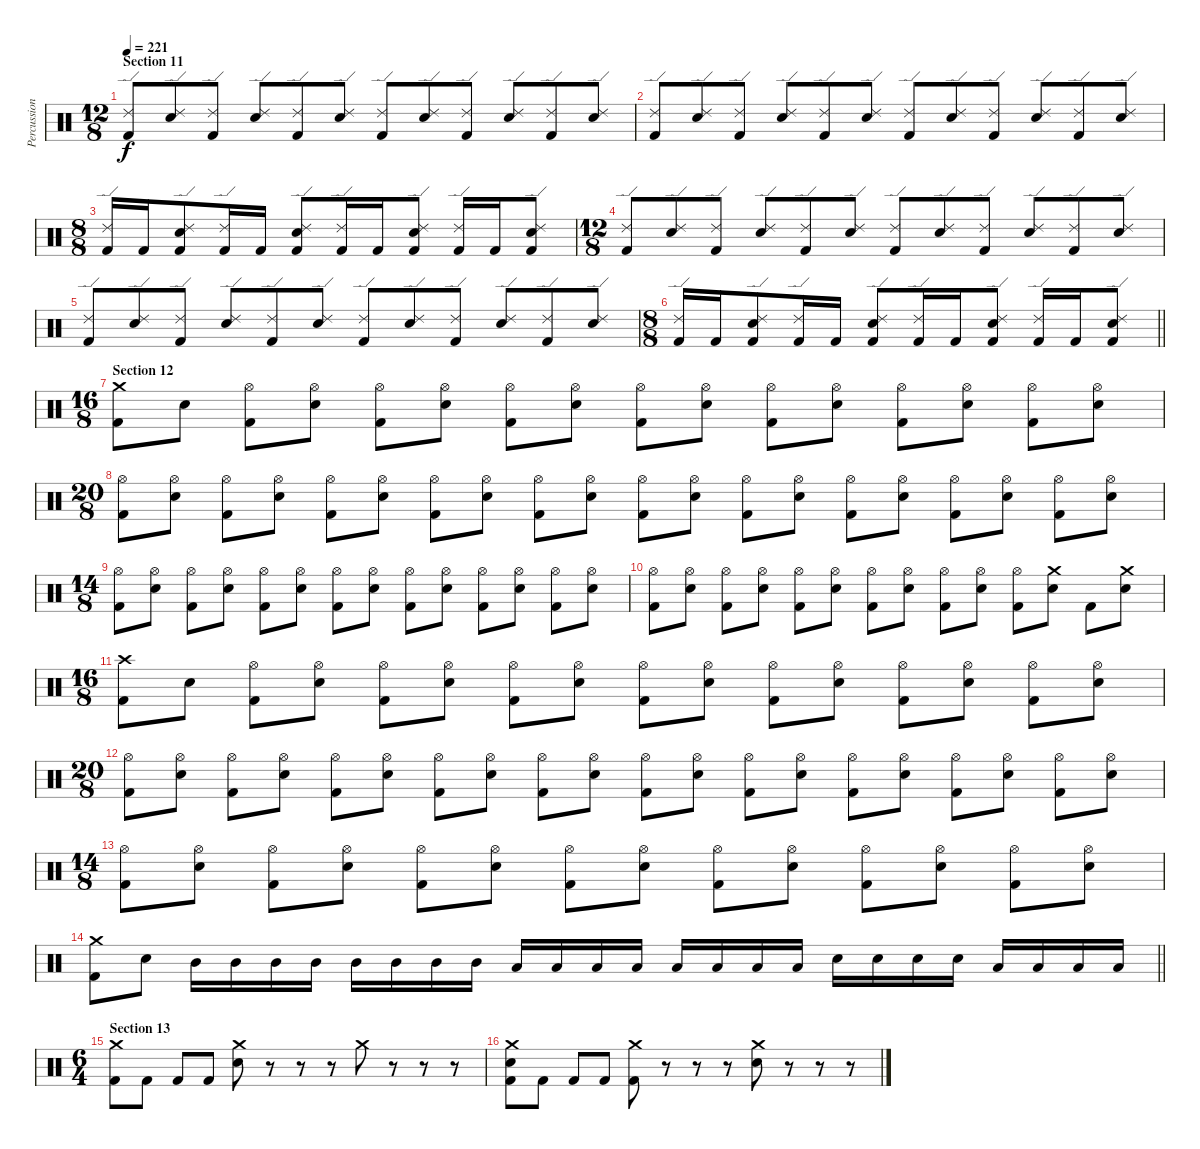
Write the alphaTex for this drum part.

\track ("Percussion" "Percussion") {instrument percussion}
\staff {score}
\articulation defaults
\ts (12 8)
\section ("" "Section 11")
\tempo 221
\clef neutral
\ks c
("Ride (edge) 2" "Kick (hit) 2").8{dy f} ("Ride (edge) 2" "Snare (hit) 2").8 ("Ride (edge) 2" "Kick (hit) 2").8 ("Ride (edge) 2" "Snare (hit) 2").8 ("Ride (edge) 2" "Kick (hit) 2").8 ("Ride (edge) 2" "Snare (hit) 2").8 ("Ride (edge) 2" "Kick (hit) 2").8 ("Ride (edge) 2" "Snare (hit) 2").8 ("Ride (edge) 2" "Kick (hit) 2").8 ("Ride (edge) 2" "Snare (hit) 2").8 ("Ride (edge) 2" "Kick (hit) 2").8 ("Ride (edge) 2" "Snare (hit) 2").8 |
("Ride (edge) 2" "Kick (hit) 2").8 ("Ride (edge) 2" "Snare (hit) 2").8 ("Ride (edge) 2" "Kick (hit) 2").8 ("Ride (edge) 2" "Snare (hit) 2").8 ("Ride (edge) 2" "Kick (hit) 2").8 ("Ride (edge) 2" "Snare (hit) 2").8 ("Ride (edge) 2" "Kick (hit) 2").8 ("Ride (edge) 2" "Snare (hit) 2").8 ("Ride (edge) 2" "Kick (hit) 2").8 ("Ride (edge) 2" "Snare (hit) 2").8 ("Ride (edge) 2" "Kick (hit) 2").8 ("Ride (edge) 2" "Snare (hit) 2").8 |
\ts (8 8)
("Ride (edge) 2" "Kick (hit) 2").16 "Kick (hit) 2".16 ("Ride (edge) 2" "Snare (hit) 2" "Kick (hit) 2").8 ("Ride (edge) 2" "Kick (hit) 2").16 "Kick (hit) 2".16 ("Ride (edge) 2" "Snare (hit) 2" "Kick (hit) 2").8 ("Ride (edge) 2" "Kick (hit) 2").16 "Kick (hit) 2".16 ("Ride (edge) 2" "Snare (hit) 2" "Kick (hit) 2").8 ("Ride (edge) 2" "Kick (hit) 2").16 "Kick (hit) 2".16 ("Ride (edge) 2" "Snare (hit) 2" "Kick (hit) 2").8 |
\ts (12 8)
("Ride (edge) 2" "Kick (hit) 2").8 ("Ride (edge) 2" "Snare (hit) 2").8 ("Ride (edge) 2" "Kick (hit) 2").8 ("Ride (edge) 2" "Snare (hit) 2").8 ("Ride (edge) 2" "Kick (hit) 2").8 ("Ride (edge) 2" "Snare (hit) 2").8 ("Ride (edge) 2" "Kick (hit) 2").8 ("Ride (edge) 2" "Snare (hit) 2").8 ("Ride (edge) 2" "Kick (hit) 2").8 ("Ride (edge) 2" "Snare (hit) 2").8 ("Ride (edge) 2" "Kick (hit) 2").8 ("Ride (edge) 2" "Snare (hit) 2").8 |
("Ride (edge) 2" "Kick (hit) 2").8 ("Ride (edge) 2" "Snare (hit) 2").8 ("Ride (edge) 2" "Kick (hit) 2").8 ("Ride (edge) 2" "Snare (hit) 2").8 ("Ride (edge) 2" "Kick (hit) 2").8 ("Ride (edge) 2" "Snare (hit) 2").8 ("Ride (edge) 2" "Kick (hit) 2").8 ("Ride (edge) 2" "Snare (hit) 2").8 ("Ride (edge) 2" "Kick (hit) 2").8 ("Ride (edge) 2" "Snare (hit) 2").8 ("Ride (edge) 2" "Kick (hit) 2").8 ("Ride (edge) 2" "Snare (hit) 2").8 |
\ts (8 8)
\barLineRight lightlight
("Ride (edge) 2" "Kick (hit) 2").16 "Kick (hit) 2".16 ("Ride (edge) 2" "Snare (hit) 2" "Kick (hit) 2").8 ("Ride (edge) 2" "Kick (hit) 2").16 "Kick (hit) 2".16 ("Ride (edge) 2" "Snare (hit) 2" "Kick (hit) 2").8 ("Ride (edge) 2" "Kick (hit) 2").16 "Kick (hit) 2".16 ("Ride (edge) 2" "Snare (hit) 2" "Kick (hit) 2").8 ("Ride (edge) 2" "Kick (hit) 2").16 "Kick (hit) 2".16 ("Ride (edge) 2" "Snare (hit) 2" "Kick (hit) 2").8 |
\ts (16 8)
\section ("" "Section 12")
("Crash medium (hit)" "Kick (hit) 2").8 "Snare (hit) 2".8 ("Hi-Hat (open)" "Kick (hit) 2").8 ("Hi-Hat (open)" "Snare (hit) 2").8 ("Hi-Hat (open)" "Kick (hit) 2").8 ("Hi-Hat (open)" "Snare (hit) 2").8 ("Hi-Hat (open)" "Kick (hit) 2").8 ("Hi-Hat (open)" "Snare (hit) 2").8 ("Hi-Hat (open)" "Kick (hit) 2").8 ("Hi-Hat (open)" "Snare (hit) 2").8 ("Hi-Hat (open)" "Kick (hit) 2").8 ("Hi-Hat (open)" "Snare (hit) 2").8 ("Hi-Hat (open)" "Kick (hit) 2").8 ("Hi-Hat (open)" "Snare (hit) 2").8 ("Hi-Hat (open)" "Kick (hit) 2").8 ("Hi-Hat (open)" "Snare (hit) 2").8 |
\ts (20 8)
("Hi-Hat (open)" "Kick (hit) 2").8 ("Hi-Hat (open)" "Snare (hit) 2").8 ("Hi-Hat (open)" "Kick (hit) 2").8 ("Hi-Hat (open)" "Snare (hit) 2").8 ("Hi-Hat (open)" "Kick (hit) 2").8 ("Hi-Hat (open)" "Snare (hit) 2").8 ("Hi-Hat (open)" "Kick (hit) 2").8 ("Hi-Hat (open)" "Snare (hit) 2").8 ("Hi-Hat (open)" "Kick (hit) 2").8 ("Hi-Hat (open)" "Snare (hit) 2").8 ("Hi-Hat (open)" "Kick (hit) 2").8 ("Hi-Hat (open)" "Snare (hit) 2").8 ("Hi-Hat (open)" "Kick (hit) 2").8 ("Hi-Hat (open)" "Snare (hit) 2").8 ("Hi-Hat (open)" "Kick (hit) 2").8 ("Hi-Hat (open)" "Snare (hit) 2").8 ("Hi-Hat (open)" "Kick (hit) 2").8 ("Hi-Hat (open)" "Snare (hit) 2").8 ("Hi-Hat (open)" "Kick (hit) 2").8 ("Hi-Hat (open)" "Snare (hit) 2").8 |
\ts (14 8)
("Hi-Hat (open)" "Kick (hit) 2").8 ("Hi-Hat (open)" "Snare (hit) 2").8 ("Hi-Hat (open)" "Kick (hit) 2").8 ("Hi-Hat (open)" "Snare (hit) 2").8 ("Hi-Hat (open)" "Kick (hit) 2").8 ("Hi-Hat (open)" "Snare (hit) 2").8 ("Hi-Hat (open)" "Kick (hit) 2").8 ("Hi-Hat (open)" "Snare (hit) 2").8 ("Hi-Hat (open)" "Kick (hit) 2").8 ("Hi-Hat (open)" "Snare (hit) 2").8 ("Hi-Hat (open)" "Kick (hit) 2").8 ("Hi-Hat (open)" "Snare (hit) 2").8 ("Hi-Hat (open)" "Kick (hit) 2").8 ("Hi-Hat (open)" "Snare (hit) 2").8 |
("Hi-Hat (open)" "Kick (hit) 2").8 ("Hi-Hat (open)" "Snare (hit) 2").8 ("Hi-Hat (open)" "Kick (hit) 2").8 ("Hi-Hat (open)" "Snare (hit) 2").8 ("Hi-Hat (open)" "Kick (hit) 2").8 ("Hi-Hat (open)" "Snare (hit) 2").8 ("Hi-Hat (open)" "Kick (hit) 2").8 ("Hi-Hat (open)" "Snare (hit) 2").8 ("Hi-Hat (open)" "Kick (hit) 2").8 ("Hi-Hat (open)" "Snare (hit) 2").8 ("Hi-Hat (open)" "Kick (hit) 2").8 ("Crash medium (hit)" "Snare (hit) 2").8 "Kick (hit) 2".8 ("Crash medium (hit)" "Snare (hit) 2").8 |
\ts (16 8)
("Crash high (hit)" "Kick (hit) 2").8 "Snare (hit) 2".8 ("Hi-Hat (open)" "Kick (hit) 2").8 ("Hi-Hat (open)" "Snare (hit) 2").8 ("Hi-Hat (open)" "Kick (hit) 2").8 ("Hi-Hat (open)" "Snare (hit) 2").8 ("Hi-Hat (open)" "Kick (hit) 2").8 ("Hi-Hat (open)" "Snare (hit) 2").8 ("Hi-Hat (open)" "Kick (hit) 2").8 ("Hi-Hat (open)" "Snare (hit) 2").8 ("Hi-Hat (open)" "Kick (hit) 2").8 ("Hi-Hat (open)" "Snare (hit) 2").8 ("Hi-Hat (open)" "Kick (hit) 2").8 ("Hi-Hat (open)" "Snare (hit) 2").8 ("Hi-Hat (open)" "Kick (hit) 2").8 ("Hi-Hat (open)" "Snare (hit) 2").8 |
\ts (20 8)
("Hi-Hat (open)" "Kick (hit) 2").8 ("Hi-Hat (open)" "Snare (hit) 2").8 ("Hi-Hat (open)" "Kick (hit) 2").8 ("Hi-Hat (open)" "Snare (hit) 2").8 ("Hi-Hat (open)" "Kick (hit) 2").8 ("Hi-Hat (open)" "Snare (hit) 2").8 ("Hi-Hat (open)" "Kick (hit) 2").8 ("Hi-Hat (open)" "Snare (hit) 2").8 ("Hi-Hat (open)" "Kick (hit) 2").8 ("Hi-Hat (open)" "Snare (hit) 2").8 ("Hi-Hat (open)" "Kick (hit) 2").8 ("Hi-Hat (open)" "Snare (hit) 2").8 ("Hi-Hat (open)" "Kick (hit) 2").8 ("Hi-Hat (open)" "Snare (hit) 2").8 ("Hi-Hat (open)" "Kick (hit) 2").8 ("Hi-Hat (open)" "Snare (hit) 2").8 ("Hi-Hat (open)" "Kick (hit) 2").8 ("Hi-Hat (open)" "Snare (hit) 2").8 ("Hi-Hat (open)" "Kick (hit) 2").8 ("Hi-Hat (open)" "Snare (hit) 2").8 |
\ts (14 8)
("Hi-Hat (open)" "Kick (hit) 2").8 ("Hi-Hat (open)" "Snare (hit) 2").8 ("Hi-Hat (open)" "Kick (hit) 2").8 ("Hi-Hat (open)" "Snare (hit) 2").8 ("Hi-Hat (open)" "Kick (hit) 2").8 ("Hi-Hat (open)" "Snare (hit) 2").8 ("Hi-Hat (open)" "Kick (hit) 2").8 ("Hi-Hat (open)" "Snare (hit) 2").8 ("Hi-Hat (open)" "Kick (hit) 2").8 ("Hi-Hat (open)" "Snare (hit) 2").8 ("Hi-Hat (open)" "Kick (hit) 2").8 ("Hi-Hat (open)" "Snare (hit) 2").8 ("Hi-Hat (open)" "Kick (hit) 2").8 ("Hi-Hat (open)" "Snare (hit) 2").8 |
\barLineRight lightlight
("Crash medium (hit)" "Kick (hit) 2").8 "Snare (hit) 2".8 "Mid Tom (hit)".16 "Mid Tom (hit)".16 "Mid Tom (hit)".16 "Mid Tom (hit)".16 "Mid Tom (hit)".16 "Mid Tom (hit)".16 "Mid Tom (hit)".16 "Mid Tom (hit)".16 "Low Tom (hit)".16 "Low Tom (hit)".16 "Low Tom (hit)".16 "Low Tom (hit)".16 "Low Tom (hit)".16 "Low Tom (hit)".16 "Low Tom (hit)".16 "Low Tom (hit)".16 "Snare (hit) 2".16 "Snare (hit) 2".16 "Snare (hit) 2".16 "Snare (hit) 2".16 "Low Floor Tom (hit)".16 "Low Floor Tom (hit)".16 "Low Floor Tom (hit)".16 "Low Floor Tom (hit)".16 |
\ts (6 4)
\section ("" "Section 13")
("Crash medium (hit)" "Kick (hit) 2").8 "Kick (hit) 2".8 "Kick (hit) 2".8 "Kick (hit) 2".8 ("Crash medium (hit)" "Snare (hit) 2").8 r.8 r.8 r.8 "Crash medium (hit)".8 r.8 r.8 r.8 |
("Crash medium (hit)" "Snare (hit) 2" "Kick (hit) 2").8 "Kick (hit) 2".8 "Kick (hit) 2".8 "Kick (hit) 2".8 ("Crash medium (hit)" "Kick (hit) 2").8 r.8 r.8 r.8 ("Crash medium (hit)" "Snare (hit) 2").8 r.8 r.8 r.8
